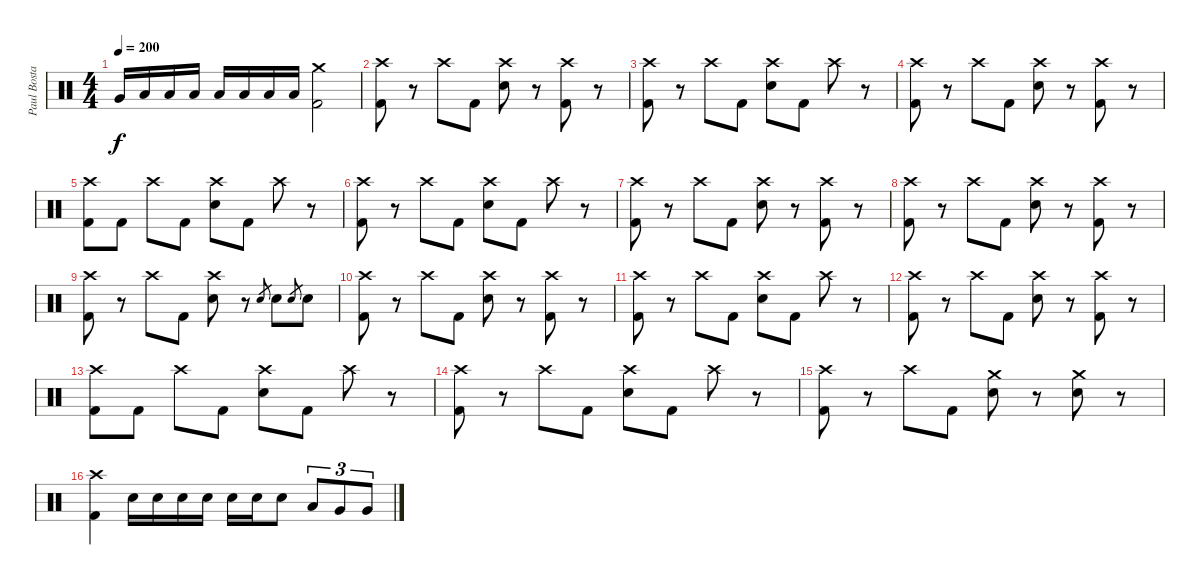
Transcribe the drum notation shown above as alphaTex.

\track ("Paul Bostaph" "Paul Bosta") {instrument percussion}
\staff {score}
\articulation defaults
\ts (4 4)
\tempo 200
\clef neutral
\ks c "Very Low Tom (hit)".16{dy f} "Low Floor Tom (hit)".16 "Low Floor Tom (hit)".16 "Low Floor Tom (hit)".16 "Low Floor Tom (hit)".16 "Low Floor Tom (hit)".16 "Low Floor Tom (hit)".16 "Low Floor Tom (hit)".16
("Crash medium (hit)" "Kick (hit) 2").2 |
("Crash high (hit)" "Kick (hit) 2").8 r.8 "Crash high (hit)".8 "Kick (hit) 2".8 ("Crash high (hit)" "Electric Snare (hit)").8 r.8 ("Crash high (hit)" "Kick (hit) 2").8 r.8 |
("Crash high (hit)" "Kick (hit) 2").8 r.8 "Crash high (hit)".8 "Kick (hit) 2".8 ("Crash high (hit)" "Electric Snare (hit)").8 "Kick (hit) 2".8 "Crash high (hit)".8 r.8 |
("Crash high (hit)" "Kick (hit) 2").8 r.8 "Crash high (hit)".8 "Kick (hit) 2".8 ("Crash high (hit)" "Electric Snare (hit)").8 r.8 ("Crash high (hit)" "Kick (hit) 2").8 r.8 |
("Crash high (hit)" "Kick (hit) 2").8 "Kick (hit) 2".8 "Crash high (hit)".8 "Kick (hit) 2".8 ("Crash high (hit)" "Electric Snare (hit)").8 "Kick (hit) 2".8 "Crash high (hit)".8 r.8 |
("Crash high (hit)" "Kick (hit) 2").8 r.8 "Crash high (hit)".8 "Kick (hit) 2".8 ("Crash high (hit)" "Electric Snare (hit)").8 "Kick (hit) 2".8 "Crash high (hit)".8 r.8 |
("Crash high (hit)" "Kick (hit) 2").8 r.8 "Crash high (hit)".8 "Kick (hit) 2".8 ("Crash high (hit)" "Electric Snare (hit)").8 r.8 ("Crash high (hit)" "Kick (hit) 2").8 r.8 |
("Crash high (hit)" "Kick (hit) 2").8 r.8 "Crash high (hit)".8 "Kick (hit) 2".8 ("Crash high (hit)" "Electric Snare (hit)").8 r.8 ("Crash high (hit)" "Kick (hit) 2").8 r.8 |
("Crash high (hit)" "Kick (hit) 2").8 r.8 "Crash high (hit)".8 "Kick (hit) 2".8 ("Crash high (hit)" "Electric Snare (hit)").8 r.8 "Electric Snare (hit)".8{gr} "Electric Snare (hit)".8 "Electric Snare (hit)".8{gr} "Electric Snare (hit)".8 |
("Crash high (hit)" "Kick (hit) 2").8 r.8 "Crash high (hit)".8 "Kick (hit) 2".8 ("Crash high (hit)" "Electric Snare (hit)").8 r.8 ("Crash high (hit)" "Kick (hit) 2").8 r.8 |
("Crash high (hit)" "Kick (hit) 2").8 r.8 "Crash high (hit)".8 "Kick (hit) 2".8 ("Crash high (hit)" "Electric Snare (hit)").8 "Kick (hit) 2".8 "Crash high (hit)".8 r.8 |
("Crash high (hit)" "Kick (hit) 2").8 r.8 "Crash high (hit)".8 "Kick (hit) 2".8 ("Crash high (hit)" "Electric Snare (hit)").8 r.8 ("Crash high (hit)" "Kick (hit) 2").8 r.8 |
("Crash high (hit)" "Kick (hit) 2").8 "Kick (hit) 2".8 "Crash high (hit)".8 "Kick (hit) 2".8 ("Crash high (hit)" "Electric Snare (hit)").8 "Kick (hit) 2".8 "Crash high (hit)".8 r.8 |
("Crash high (hit)" "Kick (hit) 2").8 r.8 "Crash high (hit)".8 "Kick (hit) 2".8 ("Crash high (hit)" "Electric Snare (hit)").8 "Kick (hit) 2".8 "Crash high (hit)".8 r.8 |
("Crash high (hit)" "Kick (hit) 2").8 r.8 "Crash high (hit)".8 "Kick (hit) 2".8 ("Crash medium (hit)" "Electric Snare (hit)").8 r.8 ("Crash medium (hit)" "Electric Snare (hit)").8 r.8 |
("Crash high (hit)" "Kick (hit) 2").4 "Electric Snare (hit)".16 "Electric Snare (hit)".16 "Electric Snare (hit)".16 "Electric Snare (hit)".16 "Electric Snare (hit)".16 "Electric Snare (hit)".16 "Electric Snare (hit)".8 "Low Tom (hit)".8{tu (3 2)} "Very Low Tom (hit)".8{tu (3 2)} "Very Low Tom (hit)".8{tu (3 2)}
